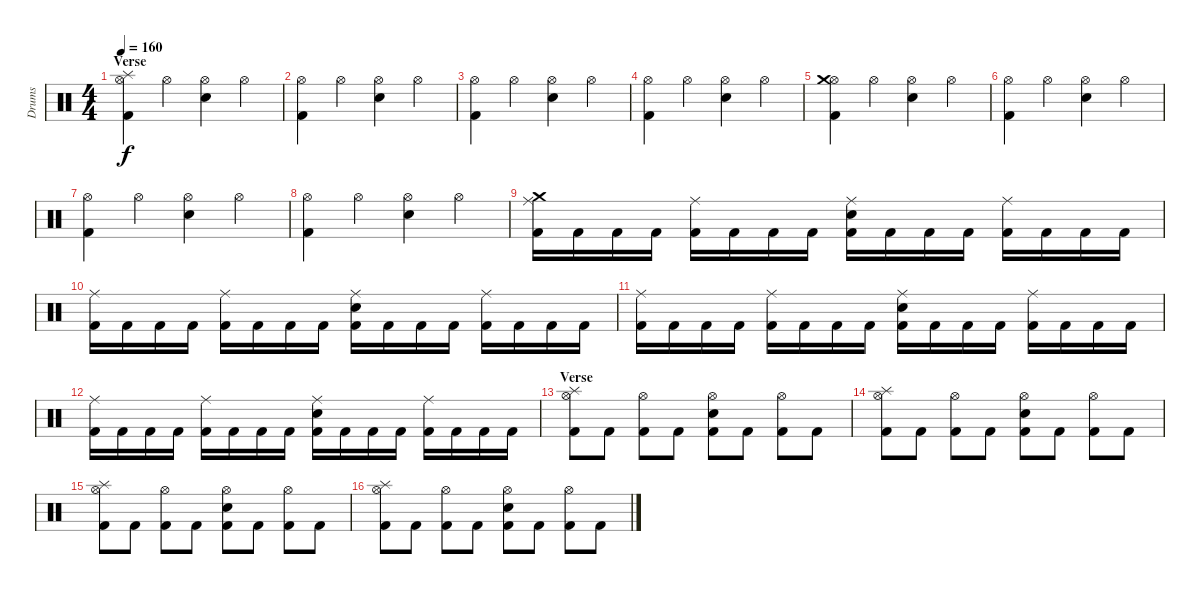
\track ("Drums" "Drums") {instrument percussion}
\staff {score}
\articulation defaults
\ts (4 4)
\section ("" "Verse")
\tempo 160
\clef neutral
\ks c
("Hi-Hat (open)" "Splash (hit)" "Kick (hit) 2").4{dy f} "Hi-Hat (open)".4 ("Hi-Hat (open)" "Snare (hit) 2").4 "Hi-Hat (open)".4 |
("Hi-Hat (open)" "Kick (hit) 2").4 "Hi-Hat (open)".4 ("Hi-Hat (open)" "Snare (hit) 2").4 "Hi-Hat (open)".4 |
("Hi-Hat (open)" "Kick (hit) 2").4 "Hi-Hat (open)".4 ("Hi-Hat (open)" "Snare (hit) 2").4 "Hi-Hat (open)".4 |
("Hi-Hat (open)" "Kick (hit) 2").4 "Hi-Hat (open)".4 ("Hi-Hat (open)" "Snare (hit) 2").4 "Hi-Hat (open)".4 |
("Hi-Hat (open)" "Crash medium (hit)" "Kick (hit) 2").4 "Hi-Hat (open)".4 ("Hi-Hat (open)" "Snare (hit) 2").4 "Hi-Hat (open)".4 |
("Hi-Hat (open)" "Kick (hit) 2").4 "Hi-Hat (open)".4 ("Hi-Hat (open)" "Snare (hit) 2").4 "Hi-Hat (open)".4 |
("Hi-Hat (open)" "Kick (hit) 2").4 "Hi-Hat (open)".4 ("Hi-Hat (open)" "Snare (hit) 2").4 "Hi-Hat (open)".4 |
("Hi-Hat (open)" "Kick (hit) 2").4 "Hi-Hat (open)".4 ("Hi-Hat (open)" "Snare (hit) 2").4 "Hi-Hat (open)".4 |
("Ride (middle)" "Crash medium (hit)" "Kick (hit) 2").16 "Kick (hit) 2".16 "Kick (hit) 2".16 "Kick (hit) 2".16 ("Ride (middle)" "Kick (hit) 2").16 "Kick (hit) 2".16 "Kick (hit) 2".16 "Kick (hit) 2".16 ("Ride (middle)" "Snare (hit) 2" "Kick (hit) 2").16 "Kick (hit) 2".16 "Kick (hit) 2".16 "Kick (hit) 2".16 ("Ride (middle)" "Kick (hit) 2").16 "Kick (hit) 2".16 "Kick (hit) 2".16 "Kick (hit) 2".16 |
("Ride (middle)" "Kick (hit) 2").16 "Kick (hit) 2".16 "Kick (hit) 2".16 "Kick (hit) 2".16 ("Ride (middle)" "Kick (hit) 2").16 "Kick (hit) 2".16 "Kick (hit) 2".16 "Kick (hit) 2".16 ("Ride (middle)" "Snare (hit) 2" "Kick (hit) 2").16 "Kick (hit) 2".16 "Kick (hit) 2".16 "Kick (hit) 2".16 ("Ride (middle)" "Kick (hit) 2").16 "Kick (hit) 2".16 "Kick (hit) 2".16 "Kick (hit) 2".16 |
("Ride (middle)" "Kick (hit) 2").16 "Kick (hit) 2".16 "Kick (hit) 2".16 "Kick (hit) 2".16 ("Ride (middle)" "Kick (hit) 2").16 "Kick (hit) 2".16 "Kick (hit) 2".16 "Kick (hit) 2".16 ("Ride (middle)" "Snare (hit) 2" "Kick (hit) 2").16 "Kick (hit) 2".16 "Kick (hit) 2".16 "Kick (hit) 2".16 ("Ride (middle)" "Kick (hit) 2").16 "Kick (hit) 2".16 "Kick (hit) 2".16 "Kick (hit) 2".16 |
("Ride (middle)" "Kick (hit) 2").16 "Kick (hit) 2".16 "Kick (hit) 2".16 "Kick (hit) 2".16 ("Ride (middle)" "Kick (hit) 2").16 "Kick (hit) 2".16 "Kick (hit) 2".16 "Kick (hit) 2".16 ("Ride (middle)" "Snare (hit) 2" "Kick (hit) 2").16 "Kick (hit) 2".16 "Kick (hit) 2".16 "Kick (hit) 2".16 ("Ride (middle)" "Kick (hit) 2").16 "Kick (hit) 2".16 "Kick (hit) 2".16 "Kick (hit) 2".16 |
\section ("" "Verse")
("Hi-Hat (open)" "Splash (hit)" "Kick (hit) 2").8 "Kick (hit) 2".8 ("Hi-Hat (open)" "Kick (hit) 2").8 "Kick (hit) 2".8 ("Hi-Hat (open)" "Snare (hit) 2" "Kick (hit) 2").8 "Kick (hit) 2".8 ("Hi-Hat (open)" "Kick (hit) 2").8 "Kick (hit) 2".8 |
("Hi-Hat (open)" "Splash (hit)" "Kick (hit) 2").8 "Kick (hit) 2".8 ("Hi-Hat (open)" "Kick (hit) 2").8 "Kick (hit) 2".8 ("Hi-Hat (open)" "Snare (hit) 2" "Kick (hit) 2").8 "Kick (hit) 2".8 ("Hi-Hat (open)" "Kick (hit) 2").8 "Kick (hit) 2".8 |
("Hi-Hat (open)" "Splash (hit)" "Kick (hit) 2").8 "Kick (hit) 2".8 ("Hi-Hat (open)" "Kick (hit) 2").8 "Kick (hit) 2".8 ("Hi-Hat (open)" "Snare (hit) 2" "Kick (hit) 2").8 "Kick (hit) 2".8 ("Hi-Hat (open)" "Kick (hit) 2").8 "Kick (hit) 2".8 |
("Hi-Hat (open)" "Splash (hit)" "Kick (hit) 2").8 "Kick (hit) 2".8 ("Hi-Hat (open)" "Kick (hit) 2").8 "Kick (hit) 2".8 ("Hi-Hat (open)" "Snare (hit) 2" "Kick (hit) 2").8 "Kick (hit) 2".8 ("Hi-Hat (open)" "Kick (hit) 2").8 "Kick (hit) 2".8
